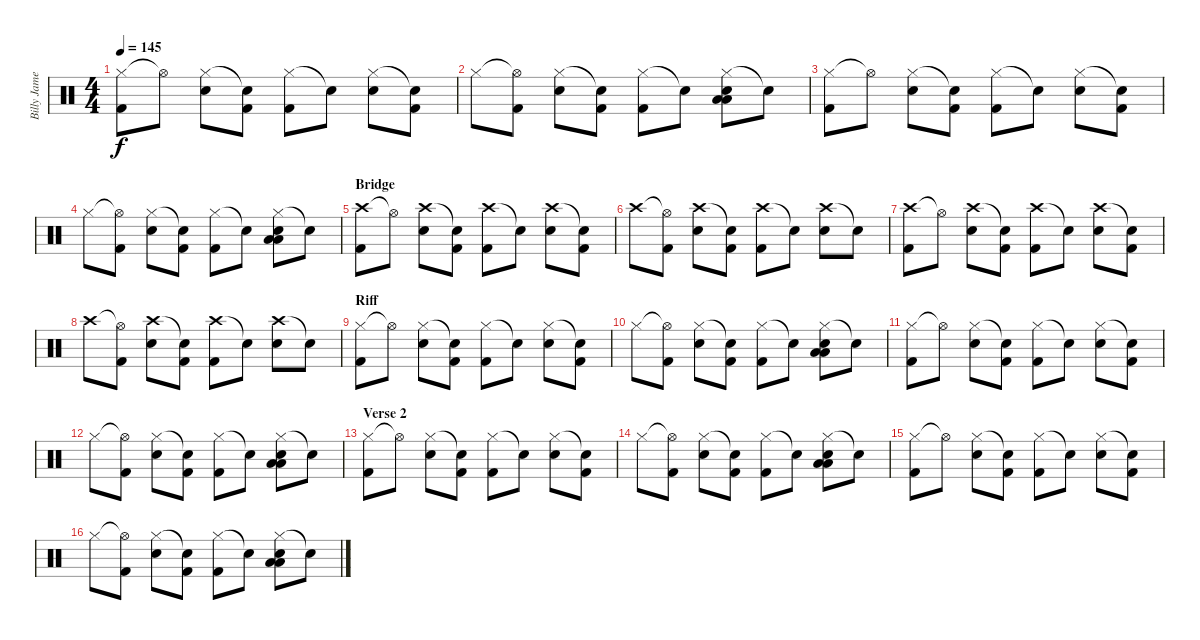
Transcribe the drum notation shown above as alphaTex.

\track ("Billy James (Drums)" "Billy Jame") {instrument percussion}
\staff {score}
\articulation defaults
\ts (4 4)
\tempo 145
\clef neutral
\ks c
("Hi-Hat (closed)" "Kick (hit) 2").8{dy f} "Hi-Hat (open)"{t}.8 ("Hi-Hat (closed)" "Snare (hit) 2").8 ("Snare (hit)"{t} "Kick (hit) 2").8 ("Hi-Hat (closed)" "Kick (hit) 2").8 "Snare (hit)"{t}.8 ("Hi-Hat (closed)" "Snare (hit) 2").8 ("Snare (hit)"{t} "Kick (hit) 2").8 |
"Hi-Hat (closed)".8 ("Hi-Hat (open)"{t} "Kick (hit) 2").8 ("Hi-Hat (closed)" "Snare (hit) 2").8 ("Snare (hit)"{t} "Kick (hit) 2").8 ("Hi-Hat (closed)" "Kick (hit) 2").8 "Snare (hit)"{t}.8 ("Hi-Hat (closed)" "Low Floor Tom (hit)" "Low Floor Tom (hit)" "Snare (hit) 2").8 "Snare (hit)"{t}.8 |
("Hi-Hat (closed)" "Kick (hit) 2").8 "Hi-Hat (open)"{t}.8 ("Hi-Hat (closed)" "Snare (hit) 2").8 ("Snare (hit)"{t} "Kick (hit) 2").8 ("Hi-Hat (closed)" "Kick (hit) 2").8 "Snare (hit)"{t}.8 ("Hi-Hat (closed)" "Snare (hit) 2").8 ("Snare (hit)"{t} "Kick (hit) 2").8 |
"Hi-Hat (closed)".8 ("Hi-Hat (open)"{t} "Kick (hit) 2").8 ("Hi-Hat (closed)" "Snare (hit) 2").8 ("Snare (hit)"{t} "Kick (hit) 2").8 ("Hi-Hat (closed)" "Kick (hit) 2").8 "Snare (hit)"{t}.8 ("Hi-Hat (closed)" "Low Floor Tom (hit)" "Low Floor Tom (hit)" "Snare (hit) 2").8 "Snare (hit)"{t}.8 |
\section ("" "Bridge")
("Crash high (hit)" "Kick (hit) 2").8 "Hi-Hat (open)"{t}.8 ("Crash high (hit)" "Snare (hit) 2").8 ("Snare (hit)"{t} "Kick (hit) 2").8 ("Crash high (hit)" "Kick (hit) 2").8 "Snare (hit)"{t}.8 ("Crash high (hit)" "Snare (hit) 2").8 ("Snare (hit)"{t} "Kick (hit) 2").8 |
"Crash high (hit)".8 ("Hi-Hat (open)"{t} "Kick (hit) 2").8 ("Crash high (hit)" "Snare (hit) 2").8 ("Snare (hit)"{t} "Kick (hit) 2").8 ("Crash high (hit)" "Kick (hit) 2").8 "Snare (hit)"{t}.8 ("Crash high (hit)" "Snare (hit) 2").8 "Snare (hit)"{t}.8 |
("Crash high (hit)" "Kick (hit) 2").8 "Hi-Hat (open)"{t}.8 ("Crash high (hit)" "Snare (hit) 2").8 ("Snare (hit)"{t} "Kick (hit) 2").8 ("Crash high (hit)" "Kick (hit) 2").8 "Snare (hit)"{t}.8 ("Crash high (hit)" "Snare (hit) 2").8 ("Snare (hit)"{t} "Kick (hit) 2").8 |
"Crash high (hit)".8 ("Hi-Hat (open)"{t} "Kick (hit) 2").8 ("Crash high (hit)" "Snare (hit) 2").8 ("Snare (hit)"{t} "Kick (hit) 2").8 ("Crash high (hit)" "Kick (hit) 2").8 "Snare (hit)"{t}.8 ("Crash high (hit)" "Snare (hit) 2").8 "Snare (hit)"{t}.8 |
\section ("" "Riff")
("Hi-Hat (closed)" "Kick (hit) 2").8 "Hi-Hat (open)"{t}.8 ("Hi-Hat (closed)" "Snare (hit) 2").8 ("Snare (hit)"{t} "Kick (hit) 2").8 ("Hi-Hat (closed)" "Kick (hit) 2").8 "Snare (hit)"{t}.8 ("Hi-Hat (closed)" "Snare (hit) 2").8 ("Snare (hit)"{t} "Kick (hit) 2").8 |
"Hi-Hat (closed)".8 ("Hi-Hat (open)"{t} "Kick (hit) 2").8 ("Hi-Hat (closed)" "Snare (hit) 2").8 ("Snare (hit)"{t} "Kick (hit) 2").8 ("Hi-Hat (closed)" "Kick (hit) 2").8 "Snare (hit)"{t}.8 ("Hi-Hat (closed)" "Low Floor Tom (hit)" "Low Floor Tom (hit)" "Snare (hit) 2").8 "Snare (hit)"{t}.8 |
("Hi-Hat (closed)" "Kick (hit) 2").8 "Hi-Hat (open)"{t}.8 ("Hi-Hat (closed)" "Snare (hit) 2").8 ("Snare (hit)"{t} "Kick (hit) 2").8 ("Hi-Hat (closed)" "Kick (hit) 2").8 "Snare (hit)"{t}.8 ("Hi-Hat (closed)" "Snare (hit) 2").8 ("Snare (hit)"{t} "Kick (hit) 2").8 |
"Hi-Hat (closed)".8 ("Hi-Hat (open)"{t} "Kick (hit) 2").8 ("Hi-Hat (closed)" "Snare (hit) 2").8 ("Snare (hit)"{t} "Kick (hit) 2").8 ("Hi-Hat (closed)" "Kick (hit) 2").8 "Snare (hit)"{t}.8 ("Hi-Hat (closed)" "Low Floor Tom (hit)" "Low Floor Tom (hit)" "Snare (hit) 2").8 "Snare (hit)"{t}.8 |
\section ("" "Verse 2")
("Hi-Hat (closed)" "Kick (hit) 2").8 "Hi-Hat (open)"{t}.8 ("Hi-Hat (closed)" "Snare (hit) 2").8 ("Snare (hit)"{t} "Kick (hit) 2").8 ("Hi-Hat (closed)" "Kick (hit) 2").8 "Snare (hit)"{t}.8 ("Hi-Hat (closed)" "Snare (hit) 2").8 ("Snare (hit)"{t} "Kick (hit) 2").8 |
"Hi-Hat (closed)".8 ("Hi-Hat (open)"{t} "Kick (hit) 2").8 ("Hi-Hat (closed)" "Snare (hit) 2").8 ("Snare (hit)"{t} "Kick (hit) 2").8 ("Hi-Hat (closed)" "Kick (hit) 2").8 "Snare (hit)"{t}.8 ("Hi-Hat (closed)" "Low Floor Tom (hit)" "Low Floor Tom (hit)" "Snare (hit) 2").8 "Snare (hit)"{t}.8 |
("Hi-Hat (closed)" "Kick (hit) 2").8 "Hi-Hat (open)"{t}.8 ("Hi-Hat (closed)" "Snare (hit) 2").8 ("Snare (hit)"{t} "Kick (hit) 2").8 ("Hi-Hat (closed)" "Kick (hit) 2").8 "Snare (hit)"{t}.8 ("Hi-Hat (closed)" "Snare (hit) 2").8 ("Snare (hit)"{t} "Kick (hit) 2").8 |
"Hi-Hat (closed)".8 ("Hi-Hat (open)"{t} "Kick (hit) 2").8 ("Hi-Hat (closed)" "Snare (hit) 2").8 ("Snare (hit)"{t} "Kick (hit) 2").8 ("Hi-Hat (closed)" "Kick (hit) 2").8 "Snare (hit)"{t}.8 ("Hi-Hat (closed)" "Low Floor Tom (hit)" "Low Floor Tom (hit)" "Snare (hit) 2").8 "Snare (hit)"{t}.8
